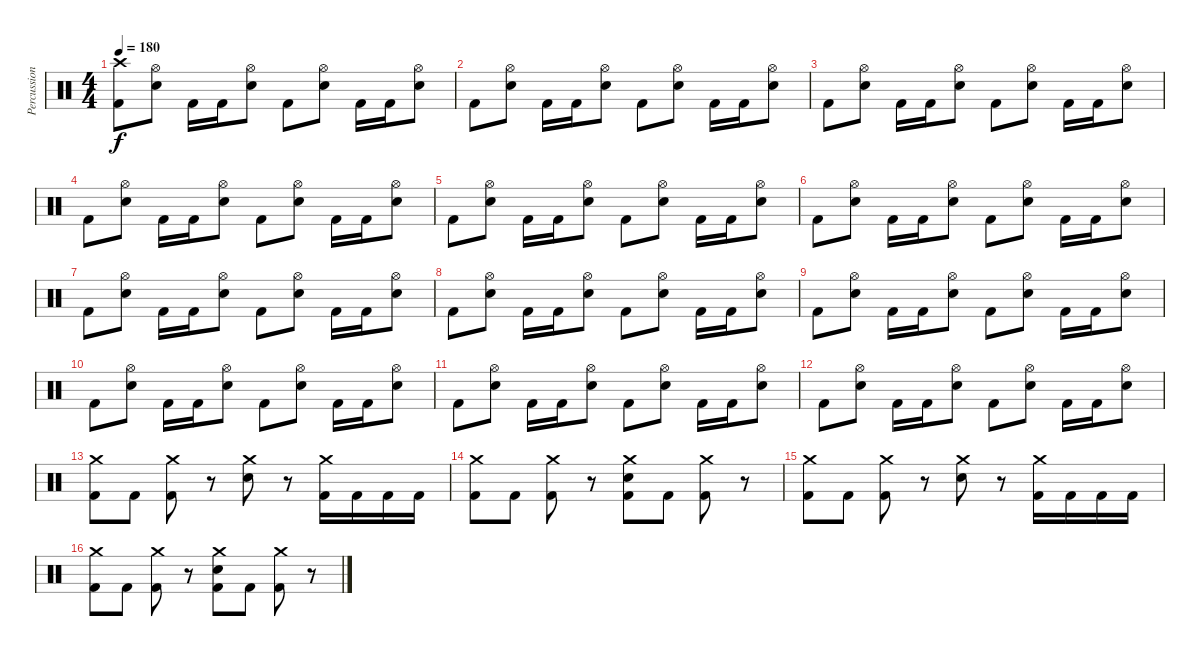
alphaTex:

\track ("Percussion" "Percussion") {instrument percussion}
\staff {score}
\articulation defaults
\ts (4 4)
\tempo 180
\clef neutral
\ks c
("Crash high (hit)" "Kick (hit) 2").8{dy f} ("Hi-Hat (open)" "Electric Snare (hit)").8 "Kick (hit) 2".16 "Kick (hit) 2".16 ("Hi-Hat (open)" "Electric Snare (hit)").8 "Kick (hit) 2".8 ("Hi-Hat (open)" "Electric Snare (hit)").8 "Kick (hit) 2".16 "Kick (hit) 2".16 ("Hi-Hat (open)" "Electric Snare (hit)").8 |
"Kick (hit) 2".8 ("Hi-Hat (open)" "Electric Snare (hit)").8 "Kick (hit) 2".16 "Kick (hit) 2".16 ("Hi-Hat (open)" "Electric Snare (hit)").8 "Kick (hit) 2".8 ("Hi-Hat (open)" "Electric Snare (hit)").8 "Kick (hit) 2".16 "Kick (hit) 2".16 ("Hi-Hat (open)" "Electric Snare (hit)").8 |
"Kick (hit) 2".8 ("Hi-Hat (open)" "Electric Snare (hit)").8 "Kick (hit) 2".16 "Kick (hit) 2".16 ("Hi-Hat (open)" "Electric Snare (hit)").8 "Kick (hit) 2".8 ("Hi-Hat (open)" "Electric Snare (hit)").8 "Kick (hit) 2".16 "Kick (hit) 2".16 ("Hi-Hat (open)" "Electric Snare (hit)").8 |
"Kick (hit) 2".8 ("Hi-Hat (open)" "Electric Snare (hit)").8 "Kick (hit) 2".16 "Kick (hit) 2".16 ("Hi-Hat (open)" "Electric Snare (hit)").8 "Kick (hit) 2".8 ("Hi-Hat (open)" "Electric Snare (hit)").8 "Kick (hit) 2".16 "Kick (hit) 2".16 ("Hi-Hat (open)" "Electric Snare (hit)").8 |
"Kick (hit) 2".8 ("Hi-Hat (open)" "Electric Snare (hit)").8 "Kick (hit) 2".16 "Kick (hit) 2".16 ("Hi-Hat (open)" "Electric Snare (hit)").8 "Kick (hit) 2".8 ("Hi-Hat (open)" "Electric Snare (hit)").8 "Kick (hit) 2".16 "Kick (hit) 2".16 ("Hi-Hat (open)" "Electric Snare (hit)").8 |
"Kick (hit) 2".8 ("Hi-Hat (open)" "Electric Snare (hit)").8 "Kick (hit) 2".16 "Kick (hit) 2".16 ("Hi-Hat (open)" "Electric Snare (hit)").8 "Kick (hit) 2".8 ("Hi-Hat (open)" "Electric Snare (hit)").8 "Kick (hit) 2".16 "Kick (hit) 2".16 ("Hi-Hat (open)" "Electric Snare (hit)").8 |
"Kick (hit) 2".8 ("Hi-Hat (open)" "Electric Snare (hit)").8 "Kick (hit) 2".16 "Kick (hit) 2".16 ("Hi-Hat (open)" "Electric Snare (hit)").8 "Kick (hit) 2".8 ("Hi-Hat (open)" "Electric Snare (hit)").8 "Kick (hit) 2".16 "Kick (hit) 2".16 ("Hi-Hat (open)" "Electric Snare (hit)").8 |
"Kick (hit) 2".8 ("Hi-Hat (open)" "Electric Snare (hit)").8 "Kick (hit) 2".16 "Kick (hit) 2".16 ("Hi-Hat (open)" "Electric Snare (hit)").8 "Kick (hit) 2".8 ("Hi-Hat (open)" "Electric Snare (hit)").8 "Kick (hit) 2".16 "Kick (hit) 2".16 ("Hi-Hat (open)" "Electric Snare (hit)").8 |
"Kick (hit) 2".8 ("Hi-Hat (open)" "Electric Snare (hit)").8 "Kick (hit) 2".16 "Kick (hit) 2".16 ("Hi-Hat (open)" "Electric Snare (hit)").8 "Kick (hit) 2".8 ("Hi-Hat (open)" "Electric Snare (hit)").8 "Kick (hit) 2".16 "Kick (hit) 2".16 ("Hi-Hat (open)" "Electric Snare (hit)").8 |
"Kick (hit) 2".8 ("Hi-Hat (open)" "Electric Snare (hit)").8 "Kick (hit) 2".16 "Kick (hit) 2".16 ("Hi-Hat (open)" "Electric Snare (hit)").8 "Kick (hit) 2".8 ("Hi-Hat (open)" "Electric Snare (hit)").8 "Kick (hit) 2".16 "Kick (hit) 2".16 ("Hi-Hat (open)" "Electric Snare (hit)").8 |
"Kick (hit) 2".8 ("Hi-Hat (open)" "Electric Snare (hit)").8 "Kick (hit) 2".16 "Kick (hit) 2".16 ("Hi-Hat (open)" "Electric Snare (hit)").8 "Kick (hit) 2".8 ("Hi-Hat (open)" "Electric Snare (hit)").8 "Kick (hit) 2".16 "Kick (hit) 2".16 ("Hi-Hat (open)" "Electric Snare (hit)").8 |
"Kick (hit) 2".8 ("Hi-Hat (open)" "Electric Snare (hit)").8 "Kick (hit) 2".16 "Kick (hit) 2".16 ("Hi-Hat (open)" "Electric Snare (hit)").8 "Kick (hit) 2".8 ("Hi-Hat (open)" "Electric Snare (hit)").8 "Kick (hit) 2".16 "Kick (hit) 2".16 ("Hi-Hat (open)" "Electric Snare (hit)").8 |
("Crash medium (hit)" "Kick (hit) 2").8 "Kick (hit) 2".8 ("Crash medium (hit)" "Kick (hit) 2").8 r.8 ("Crash medium (hit)" "Electric Snare (hit)").8 r.8 ("Crash medium (hit)" "Kick (hit) 2").16 "Kick (hit) 2".16 "Kick (hit) 2".16 "Kick (hit) 2".16 |
("Crash medium (hit)" "Kick (hit) 2").8 "Kick (hit) 2".8 ("Crash medium (hit)" "Kick (hit) 2").8 r.8 ("Crash medium (hit)" "Electric Snare (hit)" "Kick (hit) 2").8 "Kick (hit) 2".8 ("Crash medium (hit)" "Kick (hit) 2").8 r.8 |
("Crash medium (hit)" "Kick (hit) 2").8 "Kick (hit) 2".8 ("Crash medium (hit)" "Kick (hit) 2").8 r.8 ("Crash medium (hit)" "Electric Snare (hit)").8 r.8 ("Crash medium (hit)" "Kick (hit) 2").16 "Kick (hit) 2".16 "Kick (hit) 2".16 "Kick (hit) 2".16 |
("Crash medium (hit)" "Kick (hit) 2").8 "Kick (hit) 2".8 ("Crash medium (hit)" "Kick (hit) 2").8 r.8 ("Crash medium (hit)" "Electric Snare (hit)" "Kick (hit) 2").8 "Kick (hit) 2".8 ("Crash medium (hit)" "Kick (hit) 2").8 r.8
